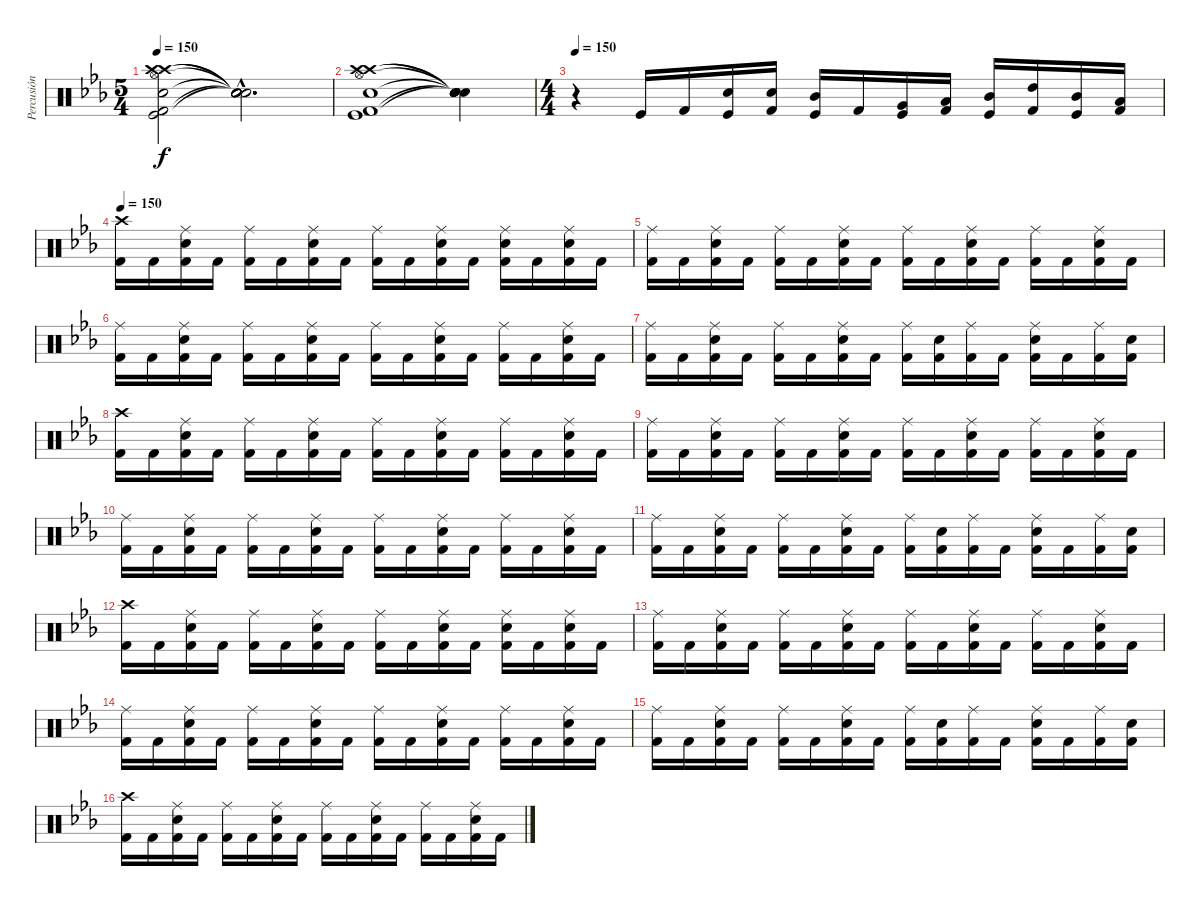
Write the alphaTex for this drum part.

\track ("Percusión" "Percusión") {instrument percussion}
\staff {score}
\articulation defaults
\ts (5 4)
\tempo 150
\clef neutral
\ks cminor
("Crash high (hit)" "Crash high (hit)" "Hi-Hat (open)" "Electric Snare (hit)" "Kick (hit)" "Kick (hit) 2").2{dy f} ("Snare (hit)"{hac t} "Snare (hit)"{hac t} "Snare (hit)"{hac t} "Snare (hit)"{hac t} "Snare (hit)"{hac t} "Snare (hit)"{hac t}).2{d} |
("Crash high (hit)" "Crash high (hit)" "Hi-Hat (open)" "Electric Snare (hit)" "Kick (hit)" "Kick (hit) 2").1 ("Snare (hit)"{t} "Snare (hit)"{t} "Snare (hit)"{t} "Snare (hit)"{t} "Snare (hit)"{t} "Snare (hit)"{t}).4 |
\ts (4 4)
\tempo 150
r.4 "Kick (hit)".16 "Kick (hit) 2".16 ("Kick (hit)" "Electric Snare (hit)").16 ("Kick (hit) 2" "Electric Snare (hit)").16 ("Kick (hit)" "Mid Tom (hit)").16 "Kick (hit) 2".16 ("Kick (hit)" "Very Low Tom (hit)").16 ("Kick (hit) 2" "Low Tom (hit)").16 ("Kick (hit)" "Mid Tom (hit)").16 ("Kick (hit) 2" "High Tom (hit)").16 ("Kick (hit)" "Mid Tom (hit)").16 ("Kick (hit) 2" "Low Tom (hit)").16 |
\tempo 150
("Crash high (hit)" "Kick (hit) 2").16{volume 7} "Kick (hit) 2".16 ("Ride (middle)" "Electric Snare (hit)" "Kick (hit) 2").16 "Kick (hit) 2".16 ("Ride (middle)" "Kick (hit) 2").16 "Kick (hit) 2".16 ("Ride (middle)" "Electric Snare (hit)" "Kick (hit) 2").16 "Kick (hit) 2".16 ("Ride (middle)" "Kick (hit) 2").16 "Kick (hit) 2".16 ("Ride (middle)" "Electric Snare (hit)" "Kick (hit) 2").16 "Kick (hit) 2".16 ("Ride (middle)" "Electric Snare (hit)" "Kick (hit) 2").16 "Kick (hit) 2".16 ("Ride (middle)" "Electric Snare (hit)" "Kick (hit) 2").16 "Kick (hit) 2".16 |
("Ride (middle)" "Kick (hit) 2").16 "Kick (hit) 2".16 ("Ride (middle)" "Electric Snare (hit)" "Kick (hit) 2").16 "Kick (hit) 2".16 ("Ride (middle)" "Kick (hit) 2").16 "Kick (hit) 2".16 ("Ride (middle)" "Electric Snare (hit)" "Kick (hit) 2").16 "Kick (hit) 2".16 ("Ride (middle)" "Kick (hit) 2").16 "Kick (hit) 2".16 ("Ride (middle)" "Electric Snare (hit)" "Kick (hit) 2").16 "Kick (hit) 2".16 ("Ride (middle)" "Kick (hit) 2").16 "Kick (hit) 2".16 ("Ride (middle)" "Electric Snare (hit)" "Kick (hit) 2").16 "Kick (hit) 2".16 |
("Ride (middle)" "Kick (hit) 2").16 "Kick (hit) 2".16 ("Ride (middle)" "Electric Snare (hit)" "Kick (hit) 2").16 "Kick (hit) 2".16 ("Ride (middle)" "Kick (hit) 2").16 "Kick (hit) 2".16 ("Ride (middle)" "Electric Snare (hit)" "Kick (hit) 2").16 "Kick (hit) 2".16 ("Ride (middle)" "Kick (hit) 2").16 "Kick (hit) 2".16 ("Ride (middle)" "Electric Snare (hit)" "Kick (hit) 2").16 "Kick (hit) 2".16 ("Ride (middle)" "Kick (hit) 2").16 "Kick (hit) 2".16 ("Ride (middle)" "Electric Snare (hit)" "Kick (hit) 2").16 "Kick (hit) 2".16 |
("Ride (middle)" "Kick (hit) 2").16 "Kick (hit) 2".16 ("Ride (middle)" "Electric Snare (hit)" "Kick (hit) 2").16 "Kick (hit) 2".16 ("Ride (middle)" "Kick (hit) 2").16 "Kick (hit) 2".16 ("Ride (middle)" "Electric Snare (hit)" "Kick (hit) 2").16 "Kick (hit) 2".16 ("Ride (middle)" "Kick (hit) 2").16 ("Electric Snare (hit)" "Kick (hit) 2").16 ("Ride (middle)" "Kick (hit) 2").16 "Kick (hit) 2".16 ("Ride (middle)" "Electric Snare (hit)" "Kick (hit) 2").16 "Kick (hit) 2".16 ("Ride (middle)" "Kick (hit) 2").16 ("Electric Snare (hit)" "Kick (hit) 2").16 |
("Crash high (hit)" "Kick (hit) 2").16 "Kick (hit) 2".16 ("Ride (middle)" "Electric Snare (hit)" "Kick (hit) 2").16 "Kick (hit) 2".16 ("Ride (middle)" "Kick (hit) 2").16 "Kick (hit) 2".16 ("Ride (middle)" "Electric Snare (hit)" "Kick (hit) 2").16 "Kick (hit) 2".16 ("Ride (middle)" "Kick (hit) 2").16 "Kick (hit) 2".16 ("Ride (middle)" "Electric Snare (hit)" "Kick (hit) 2").16 "Kick (hit) 2".16 ("Ride (middle)" "Kick (hit) 2").16 "Kick (hit) 2".16 ("Ride (middle)" "Electric Snare (hit)" "Kick (hit) 2").16 "Kick (hit) 2".16 |
("Ride (middle)" "Kick (hit) 2").16 "Kick (hit) 2".16 ("Ride (middle)" "Electric Snare (hit)" "Kick (hit) 2").16 "Kick (hit) 2".16 ("Ride (middle)" "Kick (hit) 2").16 "Kick (hit) 2".16 ("Ride (middle)" "Electric Snare (hit)" "Kick (hit) 2").16 "Kick (hit) 2".16 ("Ride (middle)" "Kick (hit) 2").16 "Kick (hit) 2".16 ("Ride (middle)" "Electric Snare (hit)" "Kick (hit) 2").16 "Kick (hit) 2".16 ("Ride (middle)" "Kick (hit) 2").16 "Kick (hit) 2".16 ("Ride (middle)" "Electric Snare (hit)" "Kick (hit) 2").16 "Kick (hit) 2".16 |
("Ride (middle)" "Kick (hit) 2").16 "Kick (hit) 2".16 ("Ride (middle)" "Electric Snare (hit)" "Kick (hit) 2").16 "Kick (hit) 2".16 ("Ride (middle)" "Kick (hit) 2").16 "Kick (hit) 2".16 ("Ride (middle)" "Electric Snare (hit)" "Kick (hit) 2").16 "Kick (hit) 2".16 ("Ride (middle)" "Kick (hit) 2").16 "Kick (hit) 2".16 ("Ride (middle)" "Electric Snare (hit)" "Kick (hit) 2").16 "Kick (hit) 2".16 ("Ride (middle)" "Kick (hit) 2").16 "Kick (hit) 2".16 ("Ride (middle)" "Electric Snare (hit)" "Kick (hit) 2").16 "Kick (hit) 2".16 |
("Ride (middle)" "Kick (hit) 2").16 "Kick (hit) 2".16 ("Ride (middle)" "Electric Snare (hit)" "Kick (hit) 2").16 "Kick (hit) 2".16 ("Ride (middle)" "Kick (hit) 2").16 "Kick (hit) 2".16 ("Ride (middle)" "Electric Snare (hit)" "Kick (hit) 2").16 "Kick (hit) 2".16 ("Ride (middle)" "Kick (hit) 2").16 ("Electric Snare (hit)" "Kick (hit) 2").16 ("Ride (middle)" "Kick (hit) 2").16 "Kick (hit) 2".16 ("Ride (middle)" "Electric Snare (hit)" "Kick (hit) 2").16 "Kick (hit) 2".16 ("Ride (middle)" "Kick (hit) 2").16 ("Electric Snare (hit)" "Kick (hit) 2").16 |
("Crash high (hit)" "Kick (hit) 2").16 "Kick (hit) 2".16 ("Ride (middle)" "Electric Snare (hit)" "Kick (hit) 2").16 "Kick (hit) 2".16 ("Ride (middle)" "Kick (hit) 2").16 "Kick (hit) 2".16 ("Ride (middle)" "Electric Snare (hit)" "Kick (hit) 2").16 "Kick (hit) 2".16 ("Ride (middle)" "Kick (hit) 2").16 "Kick (hit) 2".16 ("Ride (middle)" "Electric Snare (hit)" "Kick (hit) 2").16 "Kick (hit) 2".16 ("Ride (middle)" "Electric Snare (hit)" "Kick (hit) 2").16 "Kick (hit) 2".16 ("Ride (middle)" "Electric Snare (hit)" "Kick (hit) 2").16 "Kick (hit) 2".16 |
("Ride (middle)" "Kick (hit) 2").16 "Kick (hit) 2".16 ("Ride (middle)" "Electric Snare (hit)" "Kick (hit) 2").16 "Kick (hit) 2".16 ("Ride (middle)" "Kick (hit) 2").16 "Kick (hit) 2".16 ("Ride (middle)" "Electric Snare (hit)" "Kick (hit) 2").16 "Kick (hit) 2".16 ("Ride (middle)" "Kick (hit) 2").16 "Kick (hit) 2".16 ("Ride (middle)" "Electric Snare (hit)" "Kick (hit) 2").16 "Kick (hit) 2".16 ("Ride (middle)" "Kick (hit) 2").16 "Kick (hit) 2".16 ("Ride (middle)" "Electric Snare (hit)" "Kick (hit) 2").16 "Kick (hit) 2".16 |
("Ride (middle)" "Kick (hit) 2").16 "Kick (hit) 2".16 ("Ride (middle)" "Electric Snare (hit)" "Kick (hit) 2").16 "Kick (hit) 2".16 ("Ride (middle)" "Kick (hit) 2").16 "Kick (hit) 2".16 ("Ride (middle)" "Electric Snare (hit)" "Kick (hit) 2").16 "Kick (hit) 2".16 ("Ride (middle)" "Kick (hit) 2").16 "Kick (hit) 2".16 ("Ride (middle)" "Electric Snare (hit)" "Kick (hit) 2").16 "Kick (hit) 2".16 ("Ride (middle)" "Kick (hit) 2").16 "Kick (hit) 2".16 ("Ride (middle)" "Electric Snare (hit)" "Kick (hit) 2").16 "Kick (hit) 2".16 |
("Ride (middle)" "Kick (hit) 2").16 "Kick (hit) 2".16 ("Ride (middle)" "Electric Snare (hit)" "Kick (hit) 2").16 "Kick (hit) 2".16 ("Ride (middle)" "Kick (hit) 2").16 "Kick (hit) 2".16 ("Ride (middle)" "Electric Snare (hit)" "Kick (hit) 2").16 "Kick (hit) 2".16 ("Ride (middle)" "Kick (hit) 2").16 ("Electric Snare (hit)" "Kick (hit) 2").16 ("Ride (middle)" "Kick (hit) 2").16 "Kick (hit) 2".16 ("Ride (middle)" "Electric Snare (hit)" "Kick (hit) 2").16 "Kick (hit) 2".16 ("Ride (middle)" "Kick (hit) 2").16 ("Electric Snare (hit)" "Kick (hit) 2").16 |
("Crash high (hit)" "Kick (hit) 2").16 "Kick (hit) 2".16 ("Ride (middle)" "Electric Snare (hit)" "Kick (hit) 2").16 "Kick (hit) 2".16 ("Ride (middle)" "Kick (hit) 2").16 "Kick (hit) 2".16 ("Ride (middle)" "Electric Snare (hit)" "Kick (hit) 2").16 "Kick (hit) 2".16 ("Ride (middle)" "Kick (hit) 2").16 "Kick (hit) 2".16 ("Ride (middle)" "Electric Snare (hit)" "Kick (hit) 2").16 "Kick (hit) 2".16 ("Ride (middle)" "Kick (hit) 2").16 "Kick (hit) 2".16 ("Ride (middle)" "Electric Snare (hit)" "Kick (hit) 2").16 "Kick (hit) 2".16
